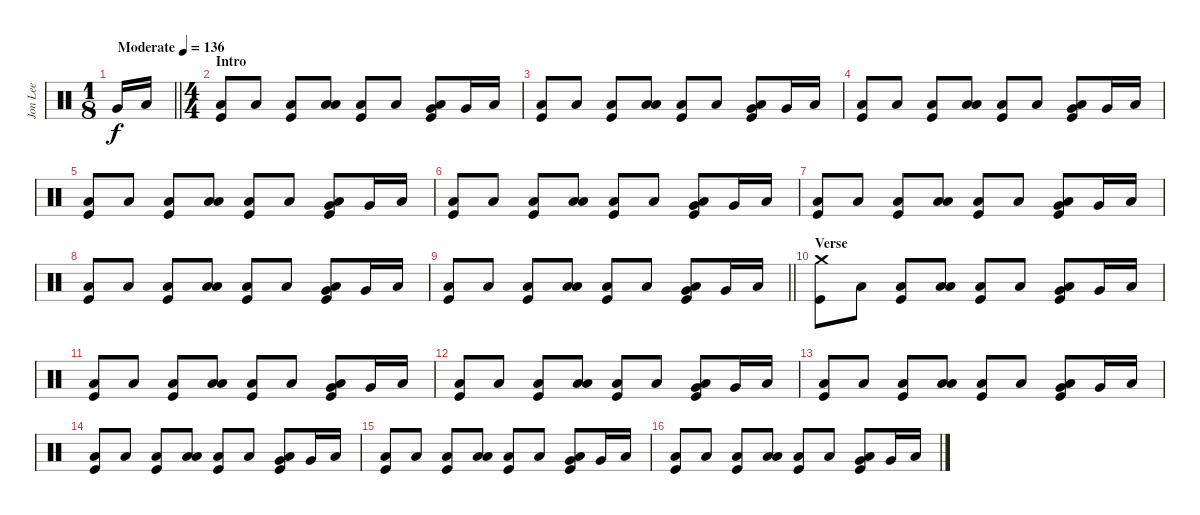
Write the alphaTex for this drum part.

\track ("Jon Lee" "Jon Lee") {instrument percussion}
\staff {score}
\articulation defaults
\ts (1 8)
\tempo (136 "Moderate")
\clef neutral
\barLineRight lightlight
\ks c "Very Low Tom (hit)".16{dy f} "Low Tom (hit)".16
|
\ts (4 4)
\section ("" "Intro")
("Low Floor Tom (hit)" "Kick (hit)").8 "Low Floor Tom (hit)".8 ("Low Floor Tom (hit)" "Kick (hit)").8 ("Low Floor Tom (hit)" "Low Tom (hit)").8 ("Low Floor Tom (hit)" "Kick (hit)").8 "Low Floor Tom (hit)".8 ("Low Floor Tom (hit)" "Very Low Tom (hit)" "Kick (hit)").8 "Very Low Tom (hit)".16 "Low Tom (hit)".16 |
("Low Floor Tom (hit)" "Kick (hit)").8 "Low Floor Tom (hit)".8 ("Low Floor Tom (hit)" "Kick (hit)").8 ("Low Floor Tom (hit)" "Low Tom (hit)").8 ("Low Floor Tom (hit)" "Kick (hit)").8 "Low Floor Tom (hit)".8 ("Low Floor Tom (hit)" "Very Low Tom (hit)" "Kick (hit)").8 "Very Low Tom (hit)".16 "Low Tom (hit)".16 |
("Low Floor Tom (hit)" "Kick (hit)").8 "Low Floor Tom (hit)".8 ("Low Floor Tom (hit)" "Kick (hit)").8 ("Low Floor Tom (hit)" "Low Tom (hit)").8 ("Low Floor Tom (hit)" "Kick (hit)").8 "Low Floor Tom (hit)".8 ("Low Floor Tom (hit)" "Very Low Tom (hit)" "Kick (hit)").8 "Very Low Tom (hit)".16 "Low Tom (hit)".16 |
("Low Floor Tom (hit)" "Kick (hit)").8 "Low Floor Tom (hit)".8 ("Low Floor Tom (hit)" "Kick (hit)").8 ("Low Floor Tom (hit)" "Low Tom (hit)").8 ("Low Floor Tom (hit)" "Kick (hit)").8 "Low Floor Tom (hit)".8 ("Low Floor Tom (hit)" "Very Low Tom (hit)" "Kick (hit)").8 "Very Low Tom (hit)".16 "Low Tom (hit)".16 |
("Low Floor Tom (hit)" "Kick (hit)").8 "Low Floor Tom (hit)".8 ("Low Floor Tom (hit)" "Kick (hit)").8 ("Low Floor Tom (hit)" "Low Tom (hit)").8 ("Low Floor Tom (hit)" "Kick (hit)").8 "Low Floor Tom (hit)".8 ("Low Floor Tom (hit)" "Very Low Tom (hit)" "Kick (hit)").8 "Very Low Tom (hit)".16 "Low Tom (hit)".16 |
("Low Floor Tom (hit)" "Kick (hit)").8 "Low Floor Tom (hit)".8 ("Low Floor Tom (hit)" "Kick (hit)").8 ("Low Floor Tom (hit)" "Low Tom (hit)").8 ("Low Floor Tom (hit)" "Kick (hit)").8 "Low Floor Tom (hit)".8 ("Low Floor Tom (hit)" "Very Low Tom (hit)" "Kick (hit)").8 "Very Low Tom (hit)".16 "Low Tom (hit)".16 |
("Low Floor Tom (hit)" "Kick (hit)").8 "Low Floor Tom (hit)".8 ("Low Floor Tom (hit)" "Kick (hit)").8 ("Low Floor Tom (hit)" "Low Tom (hit)").8 ("Low Floor Tom (hit)" "Kick (hit)").8 "Low Floor Tom (hit)".8 ("Low Floor Tom (hit)" "Very Low Tom (hit)" "Kick (hit)").8 "Very Low Tom (hit)".16 "Low Tom (hit)".16 |
\barLineRight lightlight
("Low Floor Tom (hit)" "Kick (hit)").8 "Low Floor Tom (hit)".8 ("Low Floor Tom (hit)" "Kick (hit)").8 ("Low Floor Tom (hit)" "Low Tom (hit)").8 ("Low Floor Tom (hit)" "Kick (hit)").8 "Low Floor Tom (hit)".8 ("Low Floor Tom (hit)" "Very Low Tom (hit)" "Kick (hit)").8 "Very Low Tom (hit)".16 "Low Tom (hit)".16 |
\section ("" "Verse")
("Crash medium (hit)" "Kick (hit)").8 "Low Floor Tom (hit)".8 ("Low Floor Tom (hit)" "Kick (hit)").8 ("Low Floor Tom (hit)" "Low Tom (hit)").8 ("Low Floor Tom (hit)" "Kick (hit)").8 "Low Floor Tom (hit)".8 ("Low Floor Tom (hit)" "Very Low Tom (hit)" "Kick (hit)").8 "Very Low Tom (hit)".16 "Low Tom (hit)".16 |
("Low Floor Tom (hit)" "Kick (hit)").8 "Low Floor Tom (hit)".8 ("Low Floor Tom (hit)" "Kick (hit)").8 ("Low Floor Tom (hit)" "Low Tom (hit)").8 ("Low Floor Tom (hit)" "Kick (hit)").8 "Low Floor Tom (hit)".8 ("Low Floor Tom (hit)" "Very Low Tom (hit)" "Kick (hit)").8 "Very Low Tom (hit)".16 "Low Tom (hit)".16 |
("Low Floor Tom (hit)" "Kick (hit)").8 "Low Floor Tom (hit)".8 ("Low Floor Tom (hit)" "Kick (hit)").8 ("Low Floor Tom (hit)" "Low Tom (hit)").8 ("Low Floor Tom (hit)" "Kick (hit)").8 "Low Floor Tom (hit)".8 ("Low Floor Tom (hit)" "Very Low Tom (hit)" "Kick (hit)").8 "Very Low Tom (hit)".16 "Low Tom (hit)".16 |
("Low Floor Tom (hit)" "Kick (hit)").8 "Low Floor Tom (hit)".8 ("Low Floor Tom (hit)" "Kick (hit)").8 ("Low Floor Tom (hit)" "Low Tom (hit)").8 ("Low Floor Tom (hit)" "Kick (hit)").8 "Low Floor Tom (hit)".8 ("Low Floor Tom (hit)" "Very Low Tom (hit)" "Kick (hit)").8 "Very Low Tom (hit)".16 "Low Tom (hit)".16 |
("Low Floor Tom (hit)" "Kick (hit)").8 "Low Floor Tom (hit)".8 ("Low Floor Tom (hit)" "Kick (hit)").8 ("Low Floor Tom (hit)" "Low Tom (hit)").8 ("Low Floor Tom (hit)" "Kick (hit)").8 "Low Floor Tom (hit)".8 ("Low Floor Tom (hit)" "Very Low Tom (hit)" "Kick (hit)").8 "Very Low Tom (hit)".16 "Low Tom (hit)".16 |
("Low Floor Tom (hit)" "Kick (hit)").8 "Low Floor Tom (hit)".8 ("Low Floor Tom (hit)" "Kick (hit)").8 ("Low Floor Tom (hit)" "Low Tom (hit)").8 ("Low Floor Tom (hit)" "Kick (hit)").8 "Low Floor Tom (hit)".8 ("Low Floor Tom (hit)" "Very Low Tom (hit)" "Kick (hit)").8 "Very Low Tom (hit)".16 "Low Tom (hit)".16 |
("Low Floor Tom (hit)" "Kick (hit)").8 "Low Floor Tom (hit)".8 ("Low Floor Tom (hit)" "Kick (hit)").8 ("Low Floor Tom (hit)" "Low Tom (hit)").8 ("Low Floor Tom (hit)" "Kick (hit)").8 "Low Floor Tom (hit)".8 ("Low Floor Tom (hit)" "Very Low Tom (hit)" "Kick (hit)").8 "Very Low Tom (hit)".16 "Low Tom (hit)".16
